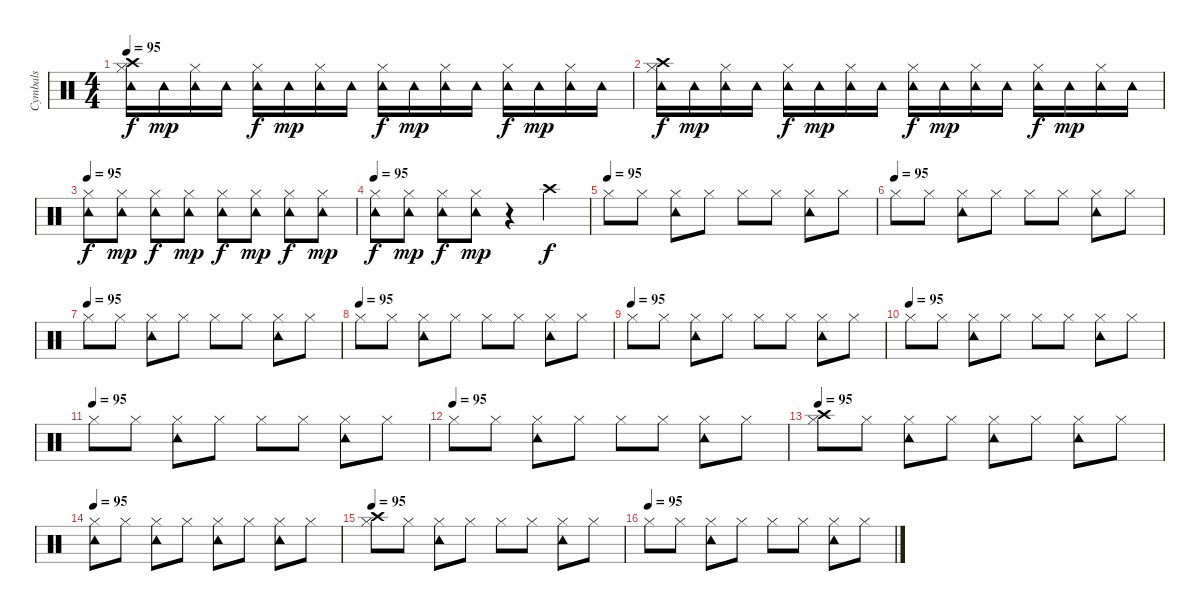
\track ("Cymbals" "Cymbals") {instrument percussion}
\staff {score}
\articulation defaults
\ts (4 4)
\tempo 95
\clef neutral
\ks c
("Crash high (hit)" "Tambourine (hit)" "Hi-Hat (closed)").16{dy f} "Tambourine (hit)".16{dy mp} ("Tambourine (hit)" "Hi-Hat (closed)").16 "Tambourine (hit)".16 ("Tambourine (hit)" "Hi-Hat (closed)").16{dy f} "Tambourine (hit)".16{dy mp} ("Tambourine (hit)" "Hi-Hat (closed)").16 "Tambourine (hit)".16 ("Tambourine (hit)" "Hi-Hat (closed)").16{dy f} "Tambourine (hit)".16{dy mp} ("Tambourine (hit)" "Hi-Hat (closed)").16 "Tambourine (hit)".16 ("Tambourine (hit)" "Hi-Hat (closed)").16{dy f} "Tambourine (hit)".16{dy mp} ("Tambourine (hit)" "Hi-Hat (closed)").16 "Tambourine (hit)".16 |
("Crash high (hit)" "Tambourine (hit)" "Hi-Hat (closed)").16{dy f} "Tambourine (hit)".16{dy mp} ("Tambourine (hit)" "Hi-Hat (closed)").16 "Tambourine (hit)".16 ("Tambourine (hit)" "Hi-Hat (closed)").16{dy f} "Tambourine (hit)".16{dy mp} ("Tambourine (hit)" "Hi-Hat (closed)").16 "Tambourine (hit)".16 ("Tambourine (hit)" "Hi-Hat (closed)").16{dy f} "Tambourine (hit)".16{dy mp} ("Tambourine (hit)" "Hi-Hat (closed)").16 "Tambourine (hit)".16 ("Tambourine (hit)" "Hi-Hat (closed)").16{dy f} "Tambourine (hit)".16{dy mp} ("Tambourine (hit)" "Hi-Hat (closed)").16 "Tambourine (hit)".16 |
\tempo 95
("Tambourine (hit)" "Hi-Hat (closed)").8{dy f} ("Tambourine (hit)" "Hi-Hat (closed)").8{dy mp} ("Tambourine (hit)" "Hi-Hat (closed)").8{dy f} ("Tambourine (hit)" "Hi-Hat (closed)").8{dy mp} ("Tambourine (hit)" "Hi-Hat (closed)").8{dy f} ("Tambourine (hit)" "Hi-Hat (closed)").8{dy mp} ("Tambourine (hit)" "Hi-Hat (closed)").8{dy f} ("Tambourine (hit)" "Hi-Hat (closed)").8{dy mp} |
\tempo 95
("Tambourine (hit)" "Hi-Hat (closed)").8{dy f} ("Tambourine (hit)" "Hi-Hat (closed)").8{dy mp} ("Tambourine (hit)" "Hi-Hat (closed)").8{dy f} ("Tambourine (hit)" "Hi-Hat (closed)").8{dy mp} r.4 "Crash high (hit)".4{dy f} |
\tempo (95)
"Hi-Hat (closed)".8 "Hi-Hat (closed)".8 ("Tambourine (hit)" "Hi-Hat (closed)").8 "Hi-Hat (closed)".8 "Hi-Hat (closed)".8 "Hi-Hat (closed)".8 ("Tambourine (hit)" "Hi-Hat (closed)").8 "Hi-Hat (closed)".8 |
\tempo (95)
"Hi-Hat (closed)".8 "Hi-Hat (closed)".8 ("Tambourine (hit)" "Hi-Hat (closed)").8 "Hi-Hat (closed)".8 "Hi-Hat (closed)".8 "Hi-Hat (closed)".8 ("Tambourine (hit)" "Hi-Hat (closed)").8 "Hi-Hat (closed)".8 |
\tempo (95)
"Hi-Hat (closed)".8 "Hi-Hat (closed)".8 ("Tambourine (hit)" "Hi-Hat (closed)").8 "Hi-Hat (closed)".8 "Hi-Hat (closed)".8 "Hi-Hat (closed)".8 ("Tambourine (hit)" "Hi-Hat (closed)").8 "Hi-Hat (closed)".8 |
\tempo (95)
"Hi-Hat (closed)".8 "Hi-Hat (closed)".8 ("Tambourine (hit)" "Hi-Hat (closed)").8 "Hi-Hat (closed)".8 "Hi-Hat (closed)".8 "Hi-Hat (closed)".8 ("Tambourine (hit)" "Hi-Hat (closed)").8 "Hi-Hat (closed)".8 |
\tempo (95)
"Hi-Hat (closed)".8 "Hi-Hat (closed)".8 ("Tambourine (hit)" "Hi-Hat (closed)").8 "Hi-Hat (closed)".8 "Hi-Hat (closed)".8 "Hi-Hat (closed)".8 ("Tambourine (hit)" "Hi-Hat (closed)").8 "Hi-Hat (closed)".8 |
\tempo (95)
"Hi-Hat (closed)".8 "Hi-Hat (closed)".8 ("Tambourine (hit)" "Hi-Hat (closed)").8 "Hi-Hat (closed)".8 "Hi-Hat (closed)".8 "Hi-Hat (closed)".8 ("Tambourine (hit)" "Hi-Hat (closed)").8 "Hi-Hat (closed)".8 |
\tempo (95)
"Hi-Hat (closed)".8 "Hi-Hat (closed)".8 ("Tambourine (hit)" "Hi-Hat (closed)").8 "Hi-Hat (closed)".8 "Hi-Hat (closed)".8 "Hi-Hat (closed)".8 ("Tambourine (hit)" "Hi-Hat (closed)").8 "Hi-Hat (closed)".8 |
\tempo (95)
"Hi-Hat (closed)".8 "Hi-Hat (closed)".8 ("Tambourine (hit)" "Hi-Hat (closed)").8 "Hi-Hat (closed)".8 "Hi-Hat (closed)".8 "Hi-Hat (closed)".8 ("Tambourine (hit)" "Hi-Hat (closed)").8 "Hi-Hat (closed)".8 |
\tempo 95
("Crash high (hit)" "Hi-Hat (closed)").8 "Hi-Hat (closed)".8 ("Tambourine (hit)" "Hi-Hat (closed)").8 "Hi-Hat (closed)".8 ("Tambourine (hit)" "Hi-Hat (closed)").8 "Hi-Hat (closed)".8 ("Tambourine (hit)" "Hi-Hat (closed)").8 "Hi-Hat (closed)".8 |
\tempo 95
("Tambourine (hit)" "Hi-Hat (closed)").8 "Hi-Hat (closed)".8 ("Tambourine (hit)" "Hi-Hat (closed)").8 "Hi-Hat (closed)".8 ("Tambourine (hit)" "Hi-Hat (closed)").8 "Hi-Hat (closed)".8 ("Tambourine (hit)" "Hi-Hat (closed)").8 "Hi-Hat (closed)".8 |
\tempo 95
("Crash high (hit)" "Hi-Hat (closed)").8 "Hi-Hat (closed)".8 ("Tambourine (hit)" "Hi-Hat (closed)").8 "Hi-Hat (closed)".8 "Hi-Hat (closed)".8 "Hi-Hat (closed)".8 ("Tambourine (hit)" "Hi-Hat (closed)").8 "Hi-Hat (closed)".8 |
\tempo (95)
"Hi-Hat (closed)".8 "Hi-Hat (closed)".8 ("Tambourine (hit)" "Hi-Hat (closed)").8 "Hi-Hat (closed)".8 "Hi-Hat (closed)".8 "Hi-Hat (closed)".8 ("Tambourine (hit)" "Hi-Hat (closed)").8 "Hi-Hat (closed)".8
